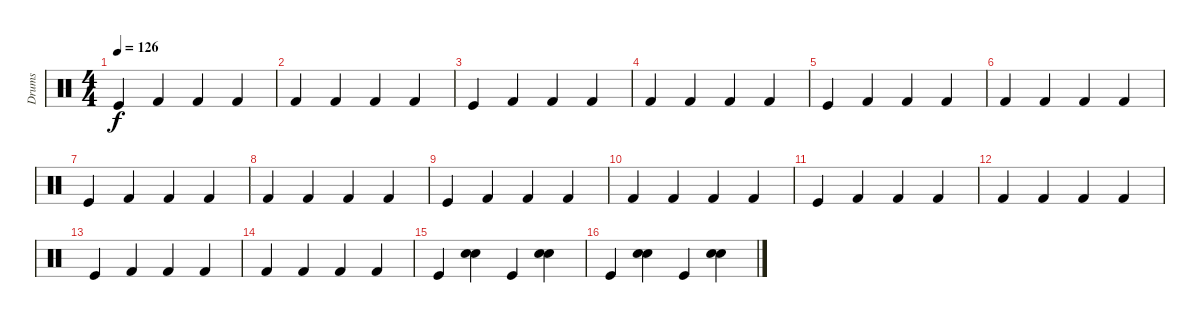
\track ("Drums" "Drums") {instrument percussion}
\staff {score}
\articulation defaults
\ts (4 4)
\tempo 126
\clef neutral
\ks c "Kick (hit)".4{dy f} "Kick (hit) 2".4 "Kick (hit) 2".4 "Kick (hit) 2".4
|
"Kick (hit) 2".4 "Kick (hit) 2".4 "Kick (hit) 2".4 "Kick (hit) 2".4 |
"Kick (hit)".4 "Kick (hit) 2".4 "Kick (hit) 2".4 "Kick (hit) 2".4 |
"Kick (hit) 2".4 "Kick (hit) 2".4 "Kick (hit) 2".4 "Kick (hit) 2".4 |
"Kick (hit)".4 "Kick (hit) 2".4 "Kick (hit) 2".4 "Kick (hit) 2".4 |
"Kick (hit) 2".4 "Kick (hit) 2".4 "Kick (hit) 2".4 "Kick (hit) 2".4 |
"Kick (hit)".4 "Kick (hit) 2".4 "Kick (hit) 2".4 "Kick (hit) 2".4 |
"Kick (hit) 2".4 "Kick (hit) 2".4 "Kick (hit) 2".4 "Kick (hit) 2".4 |
"Kick (hit)".4 "Kick (hit) 2".4 "Kick (hit) 2".4 "Kick (hit) 2".4 |
"Kick (hit) 2".4 "Kick (hit) 2".4 "Kick (hit) 2".4 "Kick (hit) 2".4 |
"Kick (hit)".4 "Kick (hit) 2".4 "Kick (hit) 2".4 "Kick (hit) 2".4 |
"Kick (hit) 2".4 "Kick (hit) 2".4 "Kick (hit) 2".4 "Kick (hit) 2".4 |
"Kick (hit)".4 "Kick (hit) 2".4 "Kick (hit) 2".4 "Kick (hit) 2".4 |
"Kick (hit) 2".4 "Kick (hit) 2".4 "Kick (hit) 2".4 "Kick (hit) 2".4 |
"Kick (hit)".4 ("Snare (hit) 2" "Hand Clap (hit)").4 "Kick (hit)".4 ("Snare (hit) 2" "Hand Clap (hit)").4 |
"Kick (hit)".4 ("Snare (hit) 2" "Hand Clap (hit)").4 "Kick (hit)".4 ("Snare (hit) 2" "Hand Clap (hit)").4
